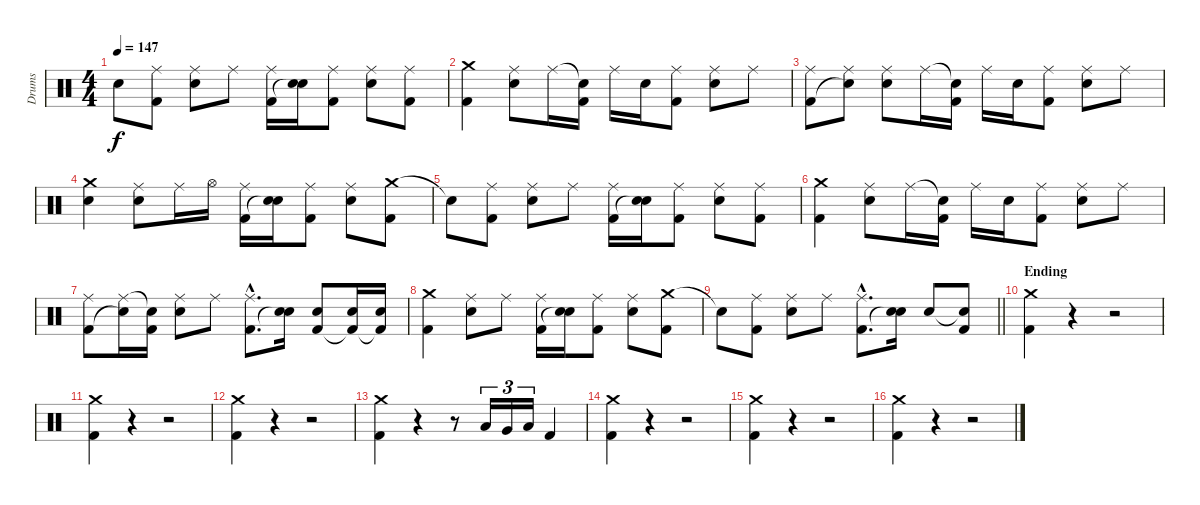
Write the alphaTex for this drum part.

\track ("Drums" "Drums") {instrument percussion}
\staff {score}
\articulation defaults
\ts (4 4)
\tempo 147
\clef neutral
\ks aminor "Snare (hit)"{t}.8{dy f}
("Ride (middle)" "Kick (hit) 2").8 ("Ride (middle)" "Electric Snare (hit)").8 "Ride (middle)".8 ("Ride (middle)" "Kick (hit) 2").16 ("Electric Snare (hit)" "Snare (hit)"{t}).16 ("Ride (middle)" "Kick (hit) 2").8 ("Ride (middle)" "Electric Snare (hit)").8 ("Ride (middle)" "Kick (hit) 2").8 |
("Crash medium (hit)" "Kick (hit) 2").4 ("Ride (middle)" "Electric Snare (hit)").8 "Ride (middle)".16 ("Snare (hit)"{t} "Kick (hit) 2").16 "Ride (middle)".16 "Electric Snare (hit)".16 ("Ride (middle)" "Kick (hit) 2").8 ("Ride (middle)" "Electric Snare (hit)").8 "Ride (middle)".8 |
("Ride (middle)" "Kick (hit) 2").8 ("Ride (middle)" "Snare (hit)"{t}).8 ("Ride (middle)" "Electric Snare (hit)").8 "Ride (middle)".16 ("Snare (hit)"{t} "Kick (hit) 2").16 "Ride (middle)".16 "Electric Snare (hit)".16 ("Ride (middle)" "Kick (hit) 2").8 ("Ride (middle)" "Electric Snare (hit)").8 "Ride (middle)".8 |
("Crash medium (hit)" "Hand Clap (hit)").4 ("Ride (middle)" "Electric Snare (hit)").8 "Ride (middle)".16 "Hi-Hat (open)".16 ("Ride (middle)" "Kick (hit) 2").16 ("Electric Snare (hit)" "Snare (hit)"{t}).16 ("Ride (middle)" "Kick (hit) 2").8 ("Ride (middle)" "Electric Snare (hit)").8 ("Crash medium (hit)" "Kick (hit) 2").8 |
"Snare (hit)"{t}.8 ("Ride (middle)" "Kick (hit) 2").8 ("Ride (middle)" "Electric Snare (hit)").8 "Ride (middle)".8 ("Ride (middle)" "Kick (hit) 2").16 ("Electric Snare (hit)" "Snare (hit)"{t}).16 ("Ride (middle)" "Kick (hit) 2").8 ("Ride (middle)" "Electric Snare (hit)").8 ("Ride (middle)" "Kick (hit) 2").8 |
("Crash medium (hit)" "Kick (hit) 2").4 ("Ride (middle)" "Electric Snare (hit)").8 "Ride (middle)".16 ("Snare (hit)"{t} "Kick (hit) 2").16 "Ride (middle)".16 "Electric Snare (hit)".16 ("Ride (middle)" "Kick (hit) 2").8 ("Ride (middle)" "Electric Snare (hit)").8 "Ride (middle)".8 |
("Ride (middle)" "Kick (hit) 2").8 ("Ride (middle)" "Snare (hit)"{t}).16 ("Snare (hit)"{t} "Kick (hit) 2").16 ("Ride (middle)" "Electric Snare (hit)").8 "Ride (middle)".8 ("Ride (middle)"{hac} "Kick (hit) 2"{hac}).8{d} ("Electric Snare (hit)" "Snare (hit)"{t}).16 ("Electric Snare (hit)" "Kick (hit) 2").8 ("Electric Snare (hit)" "Kick (hit) 2"{t}).16 ("Electric Snare (hit)" "Kick (hit) 2"{t}).16 |
("Crash medium (hit)" "Kick (hit) 2").4 ("Ride (middle)" "Electric Snare (hit)").8 "Ride (middle)".8 ("Ride (middle)" "Kick (hit) 2").16 ("Electric Snare (hit)" "Snare (hit)"{t}).16 ("Ride (middle)" "Kick (hit) 2").8 ("Ride (middle)" "Electric Snare (hit)").8 ("Crash medium (hit)" "Kick (hit) 2").8 |
\barLineRight lightlight "Snare (hit)"{t}.8
("Ride (middle)" "Kick (hit) 2").8 ("Ride (middle)" "Electric Snare (hit)").8 "Ride (middle)".8 ("Ride (middle)"{hac} "Kick (hit) 2"{hac}).8{d} ("Electric Snare (hit)" "Snare (hit)"{t}).16 "Electric Snare (hit)".8 ("Snare (hit)"{t} "Kick (hit) 2").8 |
\section ("" "Ending")
("Crash medium (hit)" "Kick (hit) 2").4 r.4 r.2 |
("Crash medium (hit)" "Kick (hit) 2").4 r.4 r.2 |
("Crash medium (hit)" "Kick (hit) 2").4 r.4 r.2 |
("Crash medium (hit)" "Kick (hit) 2").4 r.4 r.8 "Low Tom (hit)".16{tu (3 2)} "Very Low Tom (hit)".16{tu (3 2)} "Low Floor Tom (hit)".16{tu (3 2)} "Kick (hit) 2".4 |
("Crash medium (hit)" "Kick (hit) 2").4 r.4 r.2 |
("Crash medium (hit)" "Kick (hit) 2").4 r.4 r.2 |
("Crash medium (hit)" "Kick (hit) 2").4 r.4 r.2
